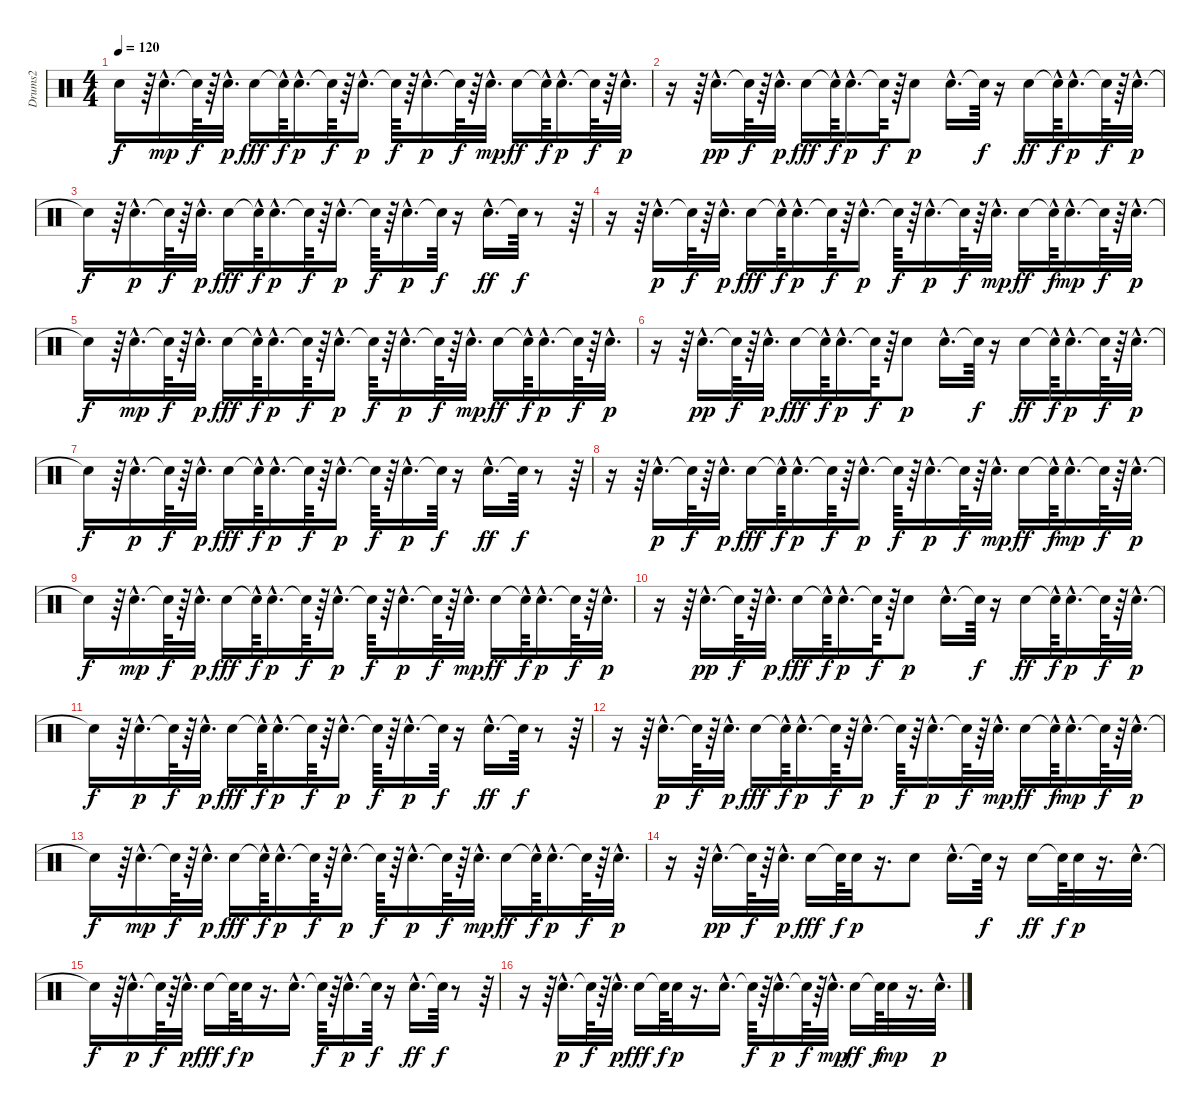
\track ("Drums2" "Drums2") {instrument percussion}
\staff {score}
\articulation defaults
\ts (4 4)
\tempo 120
\clef neutral
\ks c "Snare (hit)"{t}.16{dy f}
r.64 "Electric Snare (hit)"{hac}.16{d dy mp} "Snare (hit)"{t}.64{dy f} r.64 "Electric Snare (hit)"{hac}.32{d dy p} "Snare (hit) 2".16{dy fff} "Snare (hit)"{hac t}.64{dy f} "Electric Snare (hit)"{hac}.16{d dy p} "Snare (hit)"{t}.64{dy f} r.64 "Electric Snare (hit)"{hac}.16{d dy p} "Snare (hit)"{t}.64{dy f} r.64 "Electric Snare (hit)"{hac}.16{d dy p} "Snare (hit)"{t}.64{dy f} r.64 "Electric Snare (hit)"{hac}.32{d dy mp} "Snare (hit) 2".16{dy ff} "Snare (hit)"{hac t}.64{dy f} "Electric Snare (hit)"{hac}.16{d dy p} "Snare (hit)"{t}.64{dy f} r.64 "Electric Snare (hit)"{hac}.32{d dy p} |
r.16 r.64 "Electric Snare (hit)"{hac}.16{d dy pp} "Snare (hit)"{t}.64{dy f} r.64 "Electric Snare (hit)"{hac}.32{d dy p} "Snare (hit) 2".16{dy fff} "Snare (hit)"{hac t}.64{dy f} "Electric Snare (hit)"{hac}.16{d dy p} "Snare (hit)"{t}.64{dy f} r.64 "Electric Snare (hit)".8{dy p} "Electric Snare (hit)"{hac}.16{d} "Snare (hit)"{t}.64{dy f} r.16 "Snare (hit) 2".16{dy ff} "Snare (hit)"{hac t}.64{dy f} "Electric Snare (hit)"{hac}.16{d dy p} "Snare (hit)"{t}.64{dy f} r.64 "Electric Snare (hit)"{hac}.32{d dy p} |
"Snare (hit)"{t}.16{dy f} r.64 "Electric Snare (hit)"{hac}.16{d dy p} "Snare (hit)"{t}.64{dy f} r.64 "Electric Snare (hit)"{hac}.32{d dy p} "Snare (hit) 2".16{dy fff} "Snare (hit)"{hac t}.64{dy f} "Electric Snare (hit)"{hac}.16{d dy p} "Snare (hit)"{t}.64{dy f} r.64 "Electric Snare (hit)"{hac}.16{d dy p} "Snare (hit)"{t}.64{dy f} r.64 "Electric Snare (hit)"{hac}.16{d dy p} "Snare (hit)"{t}.64{dy f} r.16 "Snare (hit) 2"{hac}.16{d dy ff} "Snare (hit)"{t}.64{dy f} r.8 r.64 |
r.16 r.64 "Electric Snare (hit)"{hac}.16{d dy p} "Snare (hit)"{t}.64{dy f} r.64 "Electric Snare (hit)"{hac}.32{d dy p} "Snare (hit) 2".16{dy fff} "Snare (hit)"{hac t}.64{dy f} "Electric Snare (hit)"{hac}.16{d dy p} "Snare (hit)"{t}.64{dy f} r.64 "Electric Snare (hit)"{hac}.16{d dy p} "Snare (hit)"{t}.64{dy f} r.64 "Electric Snare (hit)"{hac}.16{d dy p} "Snare (hit)"{t}.64{dy f} r.64 "Electric Snare (hit)"{hac}.32{d dy mp} "Snare (hit) 2".16{dy ff} "Snare (hit)"{hac t}.64{dy f} "Electric Snare (hit)"{hac}.16{d dy mp} "Snare (hit)"{t}.64{dy f} r.64 "Electric Snare (hit)"{hac}.32{d dy p} |
"Snare (hit)"{t}.16{dy f} r.64 "Electric Snare (hit)"{hac}.16{d dy mp} "Snare (hit)"{t}.64{dy f} r.64 "Electric Snare (hit)"{hac}.32{d dy p} "Snare (hit) 2".16{dy fff} "Snare (hit)"{hac t}.64{dy f} "Electric Snare (hit)"{hac}.16{d dy p} "Snare (hit)"{t}.64{dy f} r.64 "Electric Snare (hit)"{hac}.16{d dy p} "Snare (hit)"{t}.64{dy f} r.64 "Electric Snare (hit)"{hac}.16{d dy p} "Snare (hit)"{t}.64{dy f} r.64 "Electric Snare (hit)"{hac}.32{d dy mp} "Snare (hit) 2".16{dy ff} "Snare (hit)"{hac t}.64{dy f} "Electric Snare (hit)"{hac}.16{d dy p} "Snare (hit)"{t}.64{dy f} r.64 "Electric Snare (hit)"{hac}.32{d dy p} |
r.16 r.64 "Electric Snare (hit)"{hac}.16{d dy pp} "Snare (hit)"{t}.64{dy f} r.64 "Electric Snare (hit)"{hac}.32{d dy p} "Snare (hit) 2".16{dy fff} "Snare (hit)"{hac t}.64{dy f} "Electric Snare (hit)"{hac}.16{d dy p} "Snare (hit)"{t}.64{dy f} r.64 "Electric Snare (hit)".8{dy p} "Electric Snare (hit)"{hac}.16{d} "Snare (hit)"{t}.64{dy f} r.16 "Snare (hit) 2".16{dy ff} "Snare (hit)"{hac t}.64{dy f} "Electric Snare (hit)"{hac}.16{d dy p} "Snare (hit)"{t}.64{dy f} r.64 "Electric Snare (hit)"{hac}.32{d dy p} |
"Snare (hit)"{t}.16{dy f} r.64 "Electric Snare (hit)"{hac}.16{d dy p} "Snare (hit)"{t}.64{dy f} r.64 "Electric Snare (hit)"{hac}.32{d dy p} "Snare (hit) 2".16{dy fff} "Snare (hit)"{hac t}.64{dy f} "Electric Snare (hit)"{hac}.16{d dy p} "Snare (hit)"{t}.64{dy f} r.64 "Electric Snare (hit)"{hac}.16{d dy p} "Snare (hit)"{t}.64{dy f} r.64 "Electric Snare (hit)"{hac}.16{d dy p} "Snare (hit)"{t}.64{dy f} r.16 "Snare (hit) 2"{hac}.16{d dy ff} "Snare (hit)"{t}.64{dy f} r.8 r.64 |
r.16 r.64 "Electric Snare (hit)"{hac}.16{d dy p} "Snare (hit)"{t}.64{dy f} r.64 "Electric Snare (hit)"{hac}.32{d dy p} "Snare (hit) 2".16{dy fff} "Snare (hit)"{hac t}.64{dy f} "Electric Snare (hit)"{hac}.16{d dy p} "Snare (hit)"{t}.64{dy f} r.64 "Electric Snare (hit)"{hac}.16{d dy p} "Snare (hit)"{t}.64{dy f} r.64 "Electric Snare (hit)"{hac}.16{d dy p} "Snare (hit)"{t}.64{dy f} r.64 "Electric Snare (hit)"{hac}.32{d dy mp} "Snare (hit) 2".16{dy ff} "Snare (hit)"{hac t}.64{dy f} "Electric Snare (hit)"{hac}.16{d dy mp} "Snare (hit)"{t}.64{dy f} r.64 "Electric Snare (hit)"{hac}.32{d dy p} |
"Snare (hit)"{t}.16{dy f} r.64 "Electric Snare (hit)"{hac}.16{d dy mp} "Snare (hit)"{t}.64{dy f} r.64 "Electric Snare (hit)"{hac}.32{d dy p} "Snare (hit) 2".16{dy fff} "Snare (hit)"{hac t}.64{dy f} "Electric Snare (hit)"{hac}.16{d dy p} "Snare (hit)"{t}.64{dy f} r.64 "Electric Snare (hit)"{hac}.16{d dy p} "Snare (hit)"{t}.64{dy f} r.64 "Electric Snare (hit)"{hac}.16{d dy p} "Snare (hit)"{t}.64{dy f} r.64 "Electric Snare (hit)"{hac}.32{d dy mp} "Snare (hit) 2".16{dy ff} "Snare (hit)"{hac t}.64{dy f} "Electric Snare (hit)"{hac}.16{d dy p} "Snare (hit)"{t}.64{dy f} r.64 "Electric Snare (hit)"{hac}.32{d dy p} |
r.16 r.64 "Electric Snare (hit)"{hac}.16{d dy pp} "Snare (hit)"{t}.64{dy f} r.64 "Electric Snare (hit)"{hac}.32{d dy p} "Snare (hit) 2".16{dy fff} "Snare (hit)"{hac t}.64{dy f} "Electric Snare (hit)"{hac}.16{d dy p} "Snare (hit)"{t}.64{dy f} r.64 "Electric Snare (hit)".8{dy p} "Electric Snare (hit)"{hac}.16{d} "Snare (hit)"{t}.64{dy f} r.16 "Snare (hit) 2".16{dy ff} "Snare (hit)"{hac t}.64{dy f} "Electric Snare (hit)"{hac}.16{d dy p} "Snare (hit)"{t}.64{dy f} r.64 "Electric Snare (hit)"{hac}.32{d dy p} |
"Snare (hit)"{t}.16{dy f} r.64 "Electric Snare (hit)"{hac}.16{d dy p} "Snare (hit)"{t}.64{dy f} r.64 "Electric Snare (hit)"{hac}.32{d dy p} "Snare (hit) 2".16{dy fff} "Snare (hit)"{hac t}.64{dy f} "Electric Snare (hit)"{hac}.16{d dy p} "Snare (hit)"{t}.64{dy f} r.64 "Electric Snare (hit)"{hac}.16{d dy p} "Snare (hit)"{t}.64{dy f} r.64 "Electric Snare (hit)"{hac}.16{d dy p} "Snare (hit)"{t}.64{dy f} r.16 "Snare (hit) 2"{hac}.16{d dy ff} "Snare (hit)"{t}.64{dy f} r.8 r.64 |
r.16 r.64 "Electric Snare (hit)"{hac}.16{d dy p} "Snare (hit)"{t}.64{dy f} r.64 "Electric Snare (hit)"{hac}.32{d dy p} "Snare (hit) 2".16{dy fff} "Snare (hit)"{hac t}.64{dy f} "Electric Snare (hit)"{hac}.16{d dy p} "Snare (hit)"{t}.64{dy f} r.64 "Electric Snare (hit)"{hac}.16{d dy p} "Snare (hit)"{t}.64{dy f} r.64 "Electric Snare (hit)"{hac}.16{d dy p} "Snare (hit)"{t}.64{dy f} r.64 "Electric Snare (hit)"{hac}.32{d dy mp} "Snare (hit) 2".16{dy ff} "Snare (hit)"{hac t}.64{dy f} "Electric Snare (hit)"{hac}.16{d dy mp} "Snare (hit)"{t}.64{dy f} r.64 "Electric Snare (hit)"{hac}.32{d dy p} |
"Snare (hit)"{t}.16{dy f} r.64 "Electric Snare (hit)"{hac}.16{d dy mp} "Snare (hit)"{t}.64{dy f} r.64 "Electric Snare (hit)"{hac}.32{d dy p} "Snare (hit) 2".16{dy fff} "Snare (hit)"{hac t}.64{dy f} "Electric Snare (hit)"{hac}.16{d dy p} "Snare (hit)"{t}.64{dy f} r.64 "Electric Snare (hit)"{hac}.16{d dy p} "Snare (hit)"{t}.64{dy f} r.64 "Electric Snare (hit)"{hac}.16{d dy p} "Snare (hit)"{t}.64{dy f} r.64 "Electric Snare (hit)"{hac}.32{d dy mp} "Snare (hit) 2".16{dy ff} "Snare (hit)"{hac t}.64{dy f} "Electric Snare (hit)"{hac}.16{d dy p} "Snare (hit)"{t}.64{dy f} r.64 "Electric Snare (hit)"{hac}.32{d dy p} |
r.16 r.64 "Electric Snare (hit)"{hac}.16{d dy pp} "Snare (hit)"{t}.64{dy f} r.64 "Electric Snare (hit)"{hac}.32{d dy p} "Electric Snare (hit)".16{dy fff} "Snare (hit)"{t}.64{dy f} "Electric Snare (hit)".32{dy p} r.16{d} "Electric Snare (hit)".8 "Electric Snare (hit)"{hac}.16{d} "Snare (hit)"{t}.64{dy f} r.16 "Electric Snare (hit)".16{dy ff} "Snare (hit)"{t}.64{dy f} "Electric Snare (hit)".32{dy p} r.16{d} "Electric Snare (hit)"{hac}.32{d} |
"Snare (hit)"{t}.16{dy f} r.64 "Electric Snare (hit)"{hac}.16{d dy p} "Snare (hit)"{t}.64{dy f} r.64 "Electric Snare (hit)"{hac}.32{d dy p} "Electric Snare (hit)".16{dy fff} "Snare (hit)"{t}.64{dy f} "Electric Snare (hit)".32{dy p} r.16{d} "Electric Snare (hit)"{hac}.16{d} "Snare (hit)"{t}.64{dy f} r.64 "Electric Snare (hit)"{hac}.16{d dy p} "Snare (hit)"{t}.64{dy f} r.16 "Electric Snare (hit)"{hac}.16{d dy ff} "Snare (hit)"{t}.64{dy f} r.8 r.64 |
r.16 r.64 "Electric Snare (hit)"{hac}.16{d dy p} "Snare (hit)"{t}.64{dy f} r.64 "Electric Snare (hit)"{hac}.32{d dy p} "Electric Snare (hit)".16{dy fff} "Snare (hit)"{t}.64{dy f} "Electric Snare (hit)".32{dy p} r.16{d} "Electric Snare (hit)"{hac}.16{d} "Snare (hit)"{t}.64{dy f} r.64 "Electric Snare (hit)"{hac}.16{d dy p} "Snare (hit)"{t}.64{dy f} r.64 "Electric Snare (hit)"{hac}.32{d dy mp} "Electric Snare (hit)".16{dy ff} "Snare (hit)"{t}.64{dy f} "Electric Snare (hit)".32{dy mp} r.16{d} "Electric Snare (hit)"{hac}.32{d dy p}
